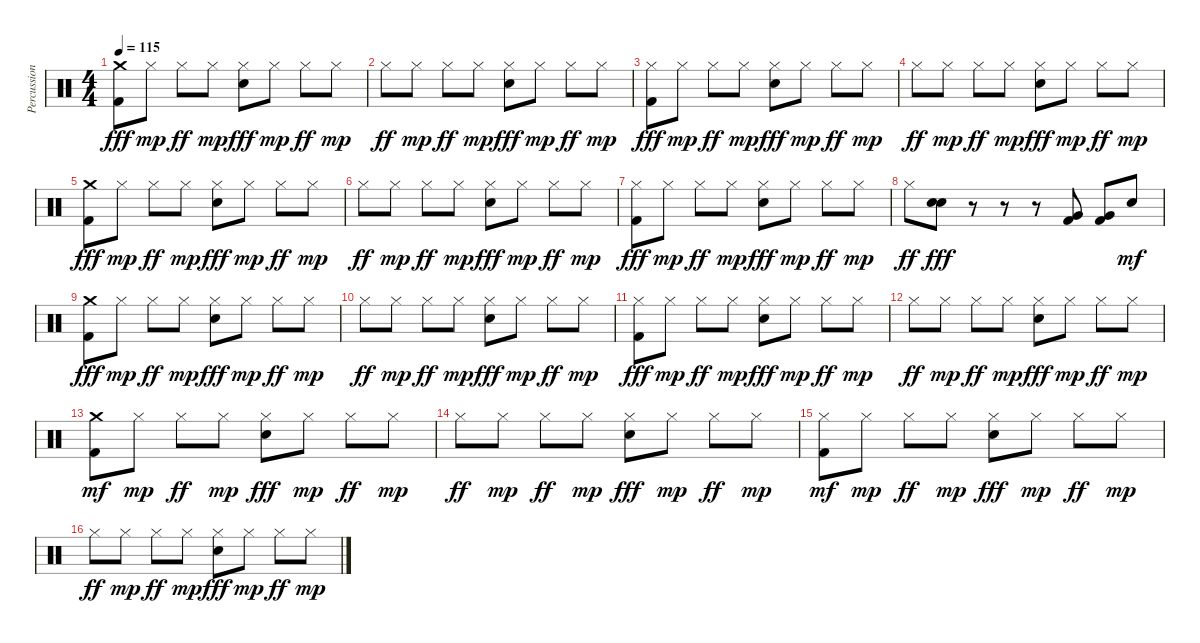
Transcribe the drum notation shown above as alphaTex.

\track ("Percussion" "Percussion") {instrument percussion}
\staff {score}
\articulation defaults
\ts (4 4)
\tempo 115
\clef neutral
\ks c
("Crash medium (hit)" "Kick (hit) 2").8{dy fff} "Hi-Hat (closed)".8{dy mp} "Hi-Hat (closed)".8{dy ff} "Hi-Hat (closed)".8{dy mp} ("Hi-Hat (closed)" "Snare (hit) 2").8{dy fff} "Hi-Hat (closed)".8{dy mp} "Hi-Hat (closed)".8{dy ff} "Hi-Hat (closed)".8{dy mp} |
"Hi-Hat (closed)".8{dy ff} "Hi-Hat (closed)".8{dy mp} "Hi-Hat (closed)".8{dy ff} "Hi-Hat (closed)".8{dy mp} ("Hi-Hat (closed)" "Snare (hit) 2").8{dy fff} "Hi-Hat (closed)".8{dy mp} "Hi-Hat (closed)".8{dy ff} "Hi-Hat (closed)".8{dy mp} |
("Hi-Hat (closed)" "Kick (hit) 2").8{dy fff} "Hi-Hat (closed)".8{dy mp} "Hi-Hat (closed)".8{dy ff} "Hi-Hat (closed)".8{dy mp} ("Hi-Hat (closed)" "Snare (hit) 2").8{dy fff} "Hi-Hat (closed)".8{dy mp} "Hi-Hat (closed)".8{dy ff} "Hi-Hat (closed)".8{dy mp} |
"Hi-Hat (closed)".8{dy ff} "Hi-Hat (closed)".8{dy mp} "Hi-Hat (closed)".8{dy ff} "Hi-Hat (closed)".8{dy mp} ("Hi-Hat (closed)" "Snare (hit) 2").8{dy fff} "Hi-Hat (closed)".8{dy mp} "Hi-Hat (closed)".8{dy ff} "Hi-Hat (closed)".8{dy mp} |
("Crash medium (hit)" "Kick (hit) 2").8{dy fff} "Hi-Hat (closed)".8{dy mp} "Hi-Hat (closed)".8{dy ff} "Hi-Hat (closed)".8{dy mp} ("Hi-Hat (closed)" "Snare (hit) 2").8{dy fff} "Hi-Hat (closed)".8{dy mp} "Hi-Hat (closed)".8{dy ff} "Hi-Hat (closed)".8{dy mp} |
"Hi-Hat (closed)".8{dy ff} "Hi-Hat (closed)".8{dy mp} "Hi-Hat (closed)".8{dy ff} "Hi-Hat (closed)".8{dy mp} ("Hi-Hat (closed)" "Snare (hit) 2").8{dy fff} "Hi-Hat (closed)".8{dy mp} "Hi-Hat (closed)".8{dy ff} "Hi-Hat (closed)".8{dy mp} |
("Hi-Hat (closed)" "Kick (hit) 2").8{dy fff} "Hi-Hat (closed)".8{dy mp} "Hi-Hat (closed)".8{dy ff} "Hi-Hat (closed)".8{dy mp} ("Hi-Hat (closed)" "Snare (hit) 2").8{dy fff} "Hi-Hat (closed)".8{dy mp} "Hi-Hat (closed)".8{dy ff} "Hi-Hat (closed)".8{dy mp} |
"Hi-Hat (closed)".8{dy ff} ("Snare (hit) 2" "Snare (hit) 2").8{dy fff} r.8 r.8 r.8 ("Very Low Tom (hit)" "Kick (hit) 2").8 ("Very Low Tom (hit)" "Kick (hit) 2").8 "Snare (hit) 2".8{dy mf} |
("Crash medium (hit)" "Kick (hit) 2").8{dy fff} "Hi-Hat (closed)".8{dy mp} "Hi-Hat (closed)".8{dy ff} "Hi-Hat (closed)".8{dy mp} ("Hi-Hat (closed)" "Snare (hit) 2").8{dy fff} "Hi-Hat (closed)".8{dy mp} "Hi-Hat (closed)".8{dy ff} "Hi-Hat (closed)".8{dy mp} |
"Hi-Hat (closed)".8{dy ff} "Hi-Hat (closed)".8{dy mp} "Hi-Hat (closed)".8{dy ff} "Hi-Hat (closed)".8{dy mp} ("Hi-Hat (closed)" "Snare (hit) 2").8{dy fff} "Hi-Hat (closed)".8{dy mp} "Hi-Hat (closed)".8{dy ff} "Hi-Hat (closed)".8{dy mp} |
("Hi-Hat (closed)" "Kick (hit) 2").8{dy fff} "Hi-Hat (closed)".8{dy mp} "Hi-Hat (closed)".8{dy ff} "Hi-Hat (closed)".8{dy mp} ("Hi-Hat (closed)" "Snare (hit) 2").8{dy fff} "Hi-Hat (closed)".8{dy mp} "Hi-Hat (closed)".8{dy ff} "Hi-Hat (closed)".8{dy mp} |
"Hi-Hat (closed)".8{dy ff} "Hi-Hat (closed)".8{dy mp} "Hi-Hat (closed)".8{dy ff} "Hi-Hat (closed)".8{dy mp} ("Hi-Hat (closed)" "Snare (hit) 2").8{dy fff} "Hi-Hat (closed)".8{dy mp} "Hi-Hat (closed)".8{dy ff} "Hi-Hat (closed)".8{dy mp} |
("Crash medium (hit)" "Kick (hit) 2").8{dy mf} "Hi-Hat (closed)".8{dy mp} "Hi-Hat (closed)".8{dy ff} "Hi-Hat (closed)".8{dy mp} ("Hi-Hat (closed)" "Snare (hit) 2").8{dy fff} "Hi-Hat (closed)".8{dy mp} "Hi-Hat (closed)".8{dy ff} "Hi-Hat (closed)".8{dy mp} |
"Hi-Hat (closed)".8{dy ff} "Hi-Hat (closed)".8{dy mp} "Hi-Hat (closed)".8{dy ff} "Hi-Hat (closed)".8{dy mp} ("Hi-Hat (closed)" "Snare (hit) 2").8{dy fff} "Hi-Hat (closed)".8{dy mp} "Hi-Hat (closed)".8{dy ff} "Hi-Hat (closed)".8{dy mp} |
("Hi-Hat (closed)" "Kick (hit) 2").8{dy mf} "Hi-Hat (closed)".8{dy mp} "Hi-Hat (closed)".8{dy ff} "Hi-Hat (closed)".8{dy mp} ("Hi-Hat (closed)" "Snare (hit) 2").8{dy fff} "Hi-Hat (closed)".8{dy mp} "Hi-Hat (closed)".8{dy ff} "Hi-Hat (closed)".8{dy mp} |
"Hi-Hat (closed)".8{dy ff} "Hi-Hat (closed)".8{dy mp} "Hi-Hat (closed)".8{dy ff} "Hi-Hat (closed)".8{dy mp} ("Hi-Hat (closed)" "Snare (hit) 2").8{dy fff} "Hi-Hat (closed)".8{dy mp} "Hi-Hat (closed)".8{dy ff} "Hi-Hat (closed)".8{dy mp}
